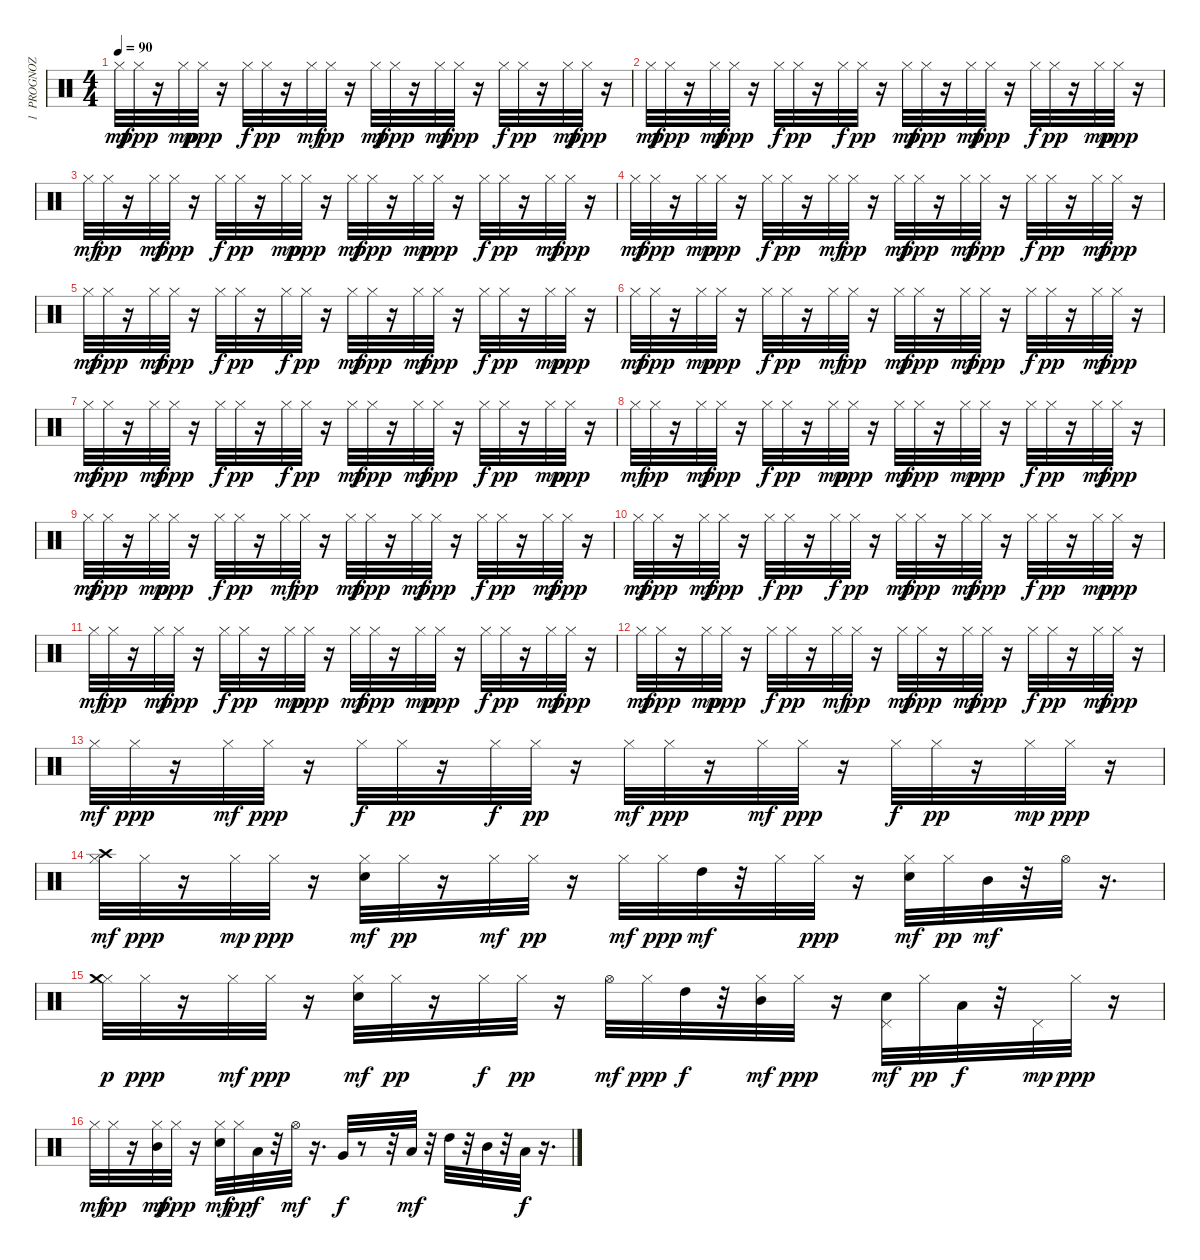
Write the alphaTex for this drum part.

\track ("1  PROGNOZ POGODY" "1  PROGNOZ") {instrument percussion}
\staff {score}
\articulation defaults
\ts (4 4)
\tempo 90
\clef neutral
\ks c "Hi-Hat (closed)".32{dy mf} "Hi-Hat (closed)".32{dy ppp}
r.16 "Hi-Hat (closed)".32{dy mp} "Hi-Hat (closed)".32{dy ppp} r.16 "Hi-Hat (closed)".32{dy f} "Hi-Hat (closed)".32{dy pp} r.16 "Hi-Hat (closed)".32{dy mf} "Hi-Hat (closed)".32{dy pp} r.16 "Hi-Hat (closed)".32{dy mf} "Hi-Hat (closed)".32{dy ppp} r.16 "Hi-Hat (closed)".32{dy mf} "Hi-Hat (closed)".32{dy ppp} r.16 "Hi-Hat (closed)".32{dy f} "Hi-Hat (closed)".32{dy pp} r.16 "Hi-Hat (closed)".32{dy mf} "Hi-Hat (closed)".32{dy ppp} r.16 |
"Hi-Hat (closed)".32{dy mf} "Hi-Hat (closed)".32{dy ppp} r.16 "Hi-Hat (closed)".32{dy mf} "Hi-Hat (closed)".32{dy ppp} r.16 "Hi-Hat (closed)".32{dy f} "Hi-Hat (closed)".32{dy pp} r.16 "Hi-Hat (closed)".32{dy f} "Hi-Hat (closed)".32{dy pp} r.16 "Hi-Hat (closed)".32{dy mf} "Hi-Hat (closed)".32{dy ppp} r.16 "Hi-Hat (closed)".32{dy mf} "Hi-Hat (closed)".32{dy ppp} r.16 "Hi-Hat (closed)".32{dy f} "Hi-Hat (closed)".32{dy pp} r.16 "Hi-Hat (closed)".32{dy mp} "Hi-Hat (closed)".32{dy ppp} r.16 |
"Hi-Hat (closed)".32{dy mf} "Hi-Hat (closed)".32{dy pp} r.16 "Hi-Hat (closed)".32{dy mf} "Hi-Hat (closed)".32{dy ppp} r.16 "Hi-Hat (closed)".32{dy f} "Hi-Hat (closed)".32{dy pp} r.16 "Hi-Hat (closed)".32{dy mp} "Hi-Hat (closed)".32{dy ppp} r.16 "Hi-Hat (closed)".32{dy mf} "Hi-Hat (closed)".32{dy ppp} r.16 "Hi-Hat (closed)".32{dy mp} "Hi-Hat (closed)".32{dy ppp} r.16 "Hi-Hat (closed)".32{dy f} "Hi-Hat (closed)".32{dy pp} r.16 "Hi-Hat (closed)".32{dy mf} "Hi-Hat (closed)".32{dy ppp} r.16 |
"Hi-Hat (closed)".32{dy mf} "Hi-Hat (closed)".32{dy ppp} r.16 "Hi-Hat (closed)".32{dy mp} "Hi-Hat (closed)".32{dy ppp} r.16 "Hi-Hat (closed)".32{dy f} "Hi-Hat (closed)".32{dy pp} r.16 "Hi-Hat (closed)".32{dy mf} "Hi-Hat (closed)".32{dy pp} r.16 "Hi-Hat (closed)".32{dy mf} "Hi-Hat (closed)".32{dy ppp} r.16 "Hi-Hat (closed)".32{dy mf} "Hi-Hat (closed)".32{dy ppp} r.16 "Hi-Hat (closed)".32{dy f} "Hi-Hat (closed)".32{dy pp} r.16 "Hi-Hat (closed)".32{dy mf} "Hi-Hat (closed)".32{dy ppp} r.16 |
"Hi-Hat (closed)".32{dy mf} "Hi-Hat (closed)".32{dy ppp} r.16 "Hi-Hat (closed)".32{dy mf} "Hi-Hat (closed)".32{dy ppp} r.16 "Hi-Hat (closed)".32{dy f} "Hi-Hat (closed)".32{dy pp} r.16 "Hi-Hat (closed)".32{dy f} "Hi-Hat (closed)".32{dy pp} r.16 "Hi-Hat (closed)".32{dy mf} "Hi-Hat (closed)".32{dy ppp} r.16 "Hi-Hat (closed)".32{dy mf} "Hi-Hat (closed)".32{dy ppp} r.16 "Hi-Hat (closed)".32{dy f} "Hi-Hat (closed)".32{dy pp} r.16 "Hi-Hat (closed)".32{dy mp} "Hi-Hat (closed)".32{dy ppp} r.16 |
"Hi-Hat (closed)".32{dy mf} "Hi-Hat (closed)".32{dy ppp} r.16 "Hi-Hat (closed)".32{dy mp} "Hi-Hat (closed)".32{dy ppp} r.16 "Hi-Hat (closed)".32{dy f} "Hi-Hat (closed)".32{dy pp} r.16 "Hi-Hat (closed)".32{dy mf} "Hi-Hat (closed)".32{dy pp} r.16 "Hi-Hat (closed)".32{dy mf} "Hi-Hat (closed)".32{dy ppp} r.16 "Hi-Hat (closed)".32{dy mf} "Hi-Hat (closed)".32{dy ppp} r.16 "Hi-Hat (closed)".32{dy f} "Hi-Hat (closed)".32{dy pp} r.16 "Hi-Hat (closed)".32{dy mf} "Hi-Hat (closed)".32{dy ppp} r.16 |
"Hi-Hat (closed)".32{dy mf} "Hi-Hat (closed)".32{dy ppp} r.16 "Hi-Hat (closed)".32{dy mf} "Hi-Hat (closed)".32{dy ppp} r.16 "Hi-Hat (closed)".32{dy f} "Hi-Hat (closed)".32{dy pp} r.16 "Hi-Hat (closed)".32{dy f} "Hi-Hat (closed)".32{dy pp} r.16 "Hi-Hat (closed)".32{dy mf} "Hi-Hat (closed)".32{dy ppp} r.16 "Hi-Hat (closed)".32{dy mf} "Hi-Hat (closed)".32{dy ppp} r.16 "Hi-Hat (closed)".32{dy f} "Hi-Hat (closed)".32{dy pp} r.16 "Hi-Hat (closed)".32{dy mp} "Hi-Hat (closed)".32{dy ppp} r.16 |
"Hi-Hat (closed)".32{dy mf} "Hi-Hat (closed)".32{dy pp} r.16 "Hi-Hat (closed)".32{dy mf} "Hi-Hat (closed)".32{dy ppp} r.16 "Hi-Hat (closed)".32{dy f} "Hi-Hat (closed)".32{dy pp} r.16 "Hi-Hat (closed)".32{dy mp} "Hi-Hat (closed)".32{dy ppp} r.16 "Hi-Hat (closed)".32{dy mf} "Hi-Hat (closed)".32{dy ppp} r.16 "Hi-Hat (closed)".32{dy mp} "Hi-Hat (closed)".32{dy ppp} r.16 "Hi-Hat (closed)".32{dy f} "Hi-Hat (closed)".32{dy pp} r.16 "Hi-Hat (closed)".32{dy mf} "Hi-Hat (closed)".32{dy ppp} r.16 |
"Hi-Hat (closed)".32{dy mf} "Hi-Hat (closed)".32{dy ppp} r.16 "Hi-Hat (closed)".32{dy mp} "Hi-Hat (closed)".32{dy ppp} r.16 "Hi-Hat (closed)".32{dy f} "Hi-Hat (closed)".32{dy pp} r.16 "Hi-Hat (closed)".32{dy mf} "Hi-Hat (closed)".32{dy pp} r.16 "Hi-Hat (closed)".32{dy mf} "Hi-Hat (closed)".32{dy ppp} r.16 "Hi-Hat (closed)".32{dy mf} "Hi-Hat (closed)".32{dy ppp} r.16 "Hi-Hat (closed)".32{dy f} "Hi-Hat (closed)".32{dy pp} r.16 "Hi-Hat (closed)".32{dy mf} "Hi-Hat (closed)".32{dy ppp} r.16 |
"Hi-Hat (closed)".32{dy mf} "Hi-Hat (closed)".32{dy ppp} r.16 "Hi-Hat (closed)".32{dy mf} "Hi-Hat (closed)".32{dy ppp} r.16 "Hi-Hat (closed)".32{dy f} "Hi-Hat (closed)".32{dy pp} r.16 "Hi-Hat (closed)".32{dy f} "Hi-Hat (closed)".32{dy pp} r.16 "Hi-Hat (closed)".32{dy mf} "Hi-Hat (closed)".32{dy ppp} r.16 "Hi-Hat (closed)".32{dy mf} "Hi-Hat (closed)".32{dy ppp} r.16 "Hi-Hat (closed)".32{dy f} "Hi-Hat (closed)".32{dy pp} r.16 "Hi-Hat (closed)".32{dy mp} "Hi-Hat (closed)".32{dy ppp} r.16 |
"Hi-Hat (closed)".32{dy mf} "Hi-Hat (closed)".32{dy pp} r.16 "Hi-Hat (closed)".32{dy mf} "Hi-Hat (closed)".32{dy ppp} r.16 "Hi-Hat (closed)".32{dy f} "Hi-Hat (closed)".32{dy pp} r.16 "Hi-Hat (closed)".32{dy mp} "Hi-Hat (closed)".32{dy ppp} r.16 "Hi-Hat (closed)".32{dy mf} "Hi-Hat (closed)".32{dy ppp} r.16 "Hi-Hat (closed)".32{dy mp} "Hi-Hat (closed)".32{dy ppp} r.16 "Hi-Hat (closed)".32{dy f} "Hi-Hat (closed)".32{dy pp} r.16 "Hi-Hat (closed)".32{dy mf} "Hi-Hat (closed)".32{dy ppp} r.16 |
"Hi-Hat (closed)".32{dy mf} "Hi-Hat (closed)".32{dy ppp} r.16 "Hi-Hat (closed)".32{dy mp} "Hi-Hat (closed)".32{dy ppp} r.16 "Hi-Hat (closed)".32{dy f} "Hi-Hat (closed)".32{dy pp} r.16 "Hi-Hat (closed)".32{dy mf} "Hi-Hat (closed)".32{dy pp} r.16 "Hi-Hat (closed)".32{dy mf} "Hi-Hat (closed)".32{dy ppp} r.16 "Hi-Hat (closed)".32{dy mf} "Hi-Hat (closed)".32{dy ppp} r.16 "Hi-Hat (closed)".32{dy f} "Hi-Hat (closed)".32{dy pp} r.16 "Hi-Hat (closed)".32{dy mf} "Hi-Hat (closed)".32{dy ppp} r.16 |
"Hi-Hat (closed)".32{dy mf} "Hi-Hat (closed)".32{dy ppp} r.16 "Hi-Hat (closed)".32{dy mf} "Hi-Hat (closed)".32{dy ppp} r.16 "Hi-Hat (closed)".32{dy f} "Hi-Hat (closed)".32{dy pp} r.16 "Hi-Hat (closed)".32{dy f} "Hi-Hat (closed)".32{dy pp} r.16 "Hi-Hat (closed)".32{dy mf} "Hi-Hat (closed)".32{dy ppp} r.16 "Hi-Hat (closed)".32{dy mf} "Hi-Hat (closed)".32{dy ppp} r.16 "Hi-Hat (closed)".32{dy f} "Hi-Hat (closed)".32{dy pp} r.16 "Hi-Hat (closed)".32{dy mp} "Hi-Hat (closed)".32{dy ppp} r.16 |
("Hi-Hat (closed)" "Crash high (hit)").32{dy mf} "Hi-Hat (closed)".32{dy ppp} r.16 "Hi-Hat (closed)".32{dy mp} "Hi-Hat (closed)".32{dy ppp} r.16 ("Hi-Hat (closed)" "Snare (hit) 2").32{dy mf} "Hi-Hat (closed)".32{dy pp} r.16 "Hi-Hat (closed)".32{dy mf} "Hi-Hat (closed)".32{dy pp} r.16 "Hi-Hat (closed)".32{dy mf} "Hi-Hat (closed)".32{dy ppp} "High Tom (hit)".32{dy mf} r.32 "Hi-Hat (closed)".32 "Hi-Hat (closed)".32{dy ppp} r.16 ("Hi-Hat (closed)" "Snare (hit) 2").32{dy mf} "Hi-Hat (closed)".32{dy pp} "Mid Tom (hit)".32{dy mf} r.32 "Hi-Hat (open)".32 r.16{d} |
("Hi-Hat (closed)" "Crash medium (hit)").32{dy p} "Hi-Hat (closed)".32{dy ppp} r.16 "Hi-Hat (closed)".32{dy mf} "Hi-Hat (closed)".32{dy ppp} r.16 ("Hi-Hat (closed)" "Snare (hit) 2").32{dy mf} "Hi-Hat (closed)".32{dy pp} r.16 "Hi-Hat (closed)".32{dy f} "Hi-Hat (closed)".32{dy pp} r.16 "Hi-Hat (open)".32{dy mf} "Hi-Hat (closed)".32{dy ppp} "High Tom (hit)".32{dy f} r.32 ("Hi-Hat (closed)" "Mid Tom (hit)").32{dy mf} "Hi-Hat (closed)".32{dy ppp} r.16 ("Pedal Hi-Hat (hit)" "Snare (hit) 2").32{dy mf} "Hi-Hat (closed)".32{dy pp} "Low Tom (hit)".32{dy f} r.32 "Pedal Hi-Hat (hit)".32{dy mp} "Hi-Hat (closed)".32{dy ppp} r.16 |
"Hi-Hat (closed)".32{dy mf} "Hi-Hat (closed)".32{dy pp} r.16 ("Hi-Hat (closed)" "Mid Tom (hit)").32{dy mf} "Hi-Hat (closed)".32{dy ppp} r.16 ("Hi-Hat (closed)" "Snare (hit) 2").32{dy mf} "Hi-Hat (closed)".32{dy pp} "Low Tom (hit)".32{dy f} r.32 "Hi-Hat (open)".32{dy mf} r.16{d} "Very Low Tom (hit)".32{dy f} r.8 r.32 "Low Tom (hit)".32{dy mf} r.32 "High Tom (hit)".32 r.32 "Mid Tom (hit)".32 r.32 "Low Tom (hit)".32{dy f} r.16{d}
